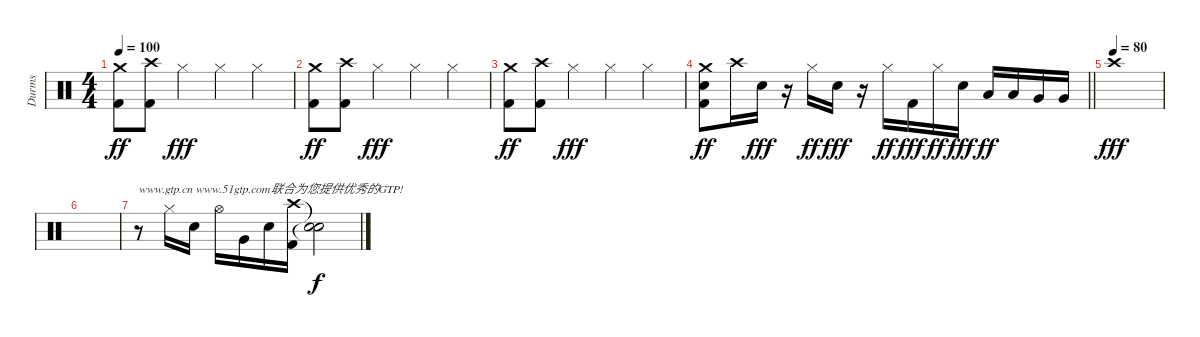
\track ("Durms" "Durms") {instrument percussion}
\staff {score}
\articulation defaults
\ts (4 4)
\tempo 100
\clef neutral
\ks c
("Crash medium (hit)" "Kick (hit) 2").8{dy ff} ("Crash high (hit)" "Kick (hit) 2").8 "Hi-Hat (closed)".4{dy fff} "Hi-Hat (closed)".4 "Hi-Hat (closed)".4 |
("Crash medium (hit)" "Kick (hit) 2").8{dy ff} ("Crash high (hit)" "Kick (hit) 2").8 "Hi-Hat (closed)".4{dy fff} "Hi-Hat (closed)".4 "Hi-Hat (closed)".4 |
("Crash medium (hit)" "Kick (hit) 2").8{dy ff} ("Crash high (hit)" "Kick (hit) 2").8 "Hi-Hat (closed)".4{dy fff} "Hi-Hat (closed)".4 "Hi-Hat (closed)".4 |
\barLineRight lightlight
("Crash medium (hit)" "Electric Snare (hit)" "Kick (hit) 2").8{dy ff} "Crash high (hit)".16 "Electric Snare (hit)".16{dy fff} r.16 "Hi-Hat (closed)".16{dy ff} "Electric Snare (hit)".16{dy fff} r.16 "Hi-Hat (closed)".16{dy ff} "Kick (hit) 2".16{dy fff} "Hi-Hat (closed)".16{dy ff} "Electric Snare (hit)".16{dy fff} "Low Tom (hit)".16{dy ff} "Low Tom (hit)".16 "Very Low Tom (hit)".16 "Very Low Tom (hit)".16 |
\tempo 130
\tempo (80)
"Crash high (hit)".1{dy fff} |
|
r.8{txt "www.gtp.cn www.51gtp.com联合为您提供优秀的GTP!"} "Hi-Hat (closed)".16 "Electric Snare (hit)".16 "Hi-Hat (open)".16 "Very Low Tom (hit)".16 "Electric Snare (hit)".16 ("Crash high (hit)" "Kick (hit) 2").16 ("Snare (hit)"{t} "Snare (hit)"{t}).2{dy f}
